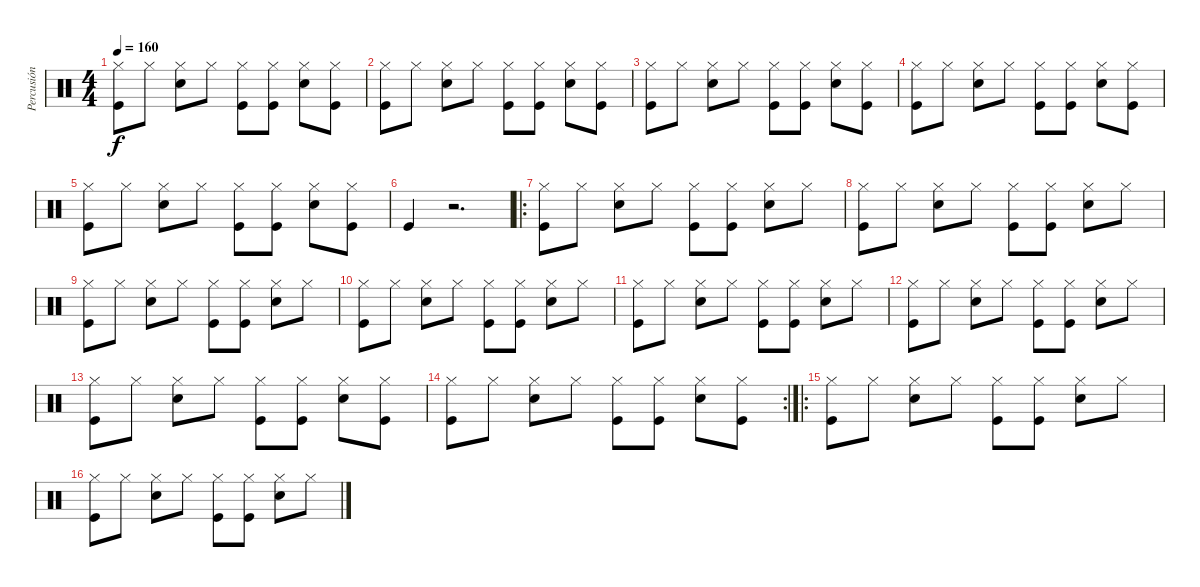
\track ("Percusión" "Percusión") {instrument percussion}
\staff {score}
\articulation defaults
\ts (4 4)
\tempo 160
\clef neutral
\ks c
("Hi-Hat (closed)" "Kick (hit)").8{dy f} "Hi-Hat (closed)".8 ("Hi-Hat (closed)" "Electric Snare (hit)").8 "Hi-Hat (closed)".8 ("Hi-Hat (closed)" "Kick (hit)").8 ("Hi-Hat (closed)" "Kick (hit)").8 ("Hi-Hat (closed)" "Electric Snare (hit)").8 ("Hi-Hat (closed)" "Kick (hit)").8 |
("Hi-Hat (closed)" "Kick (hit)").8 "Hi-Hat (closed)".8 ("Hi-Hat (closed)" "Electric Snare (hit)").8 "Hi-Hat (closed)".8 ("Hi-Hat (closed)" "Kick (hit)").8 ("Hi-Hat (closed)" "Kick (hit)").8 ("Hi-Hat (closed)" "Electric Snare (hit)").8 ("Hi-Hat (closed)" "Kick (hit)").8 |
("Hi-Hat (closed)" "Kick (hit)").8 "Hi-Hat (closed)".8 ("Hi-Hat (closed)" "Electric Snare (hit)").8 "Hi-Hat (closed)".8 ("Hi-Hat (closed)" "Kick (hit)").8 ("Hi-Hat (closed)" "Kick (hit)").8 ("Hi-Hat (closed)" "Electric Snare (hit)").8 ("Hi-Hat (closed)" "Kick (hit)").8 |
("Hi-Hat (closed)" "Kick (hit)").8 "Hi-Hat (closed)".8 ("Hi-Hat (closed)" "Electric Snare (hit)").8 "Hi-Hat (closed)".8 ("Hi-Hat (closed)" "Kick (hit)").8 ("Hi-Hat (closed)" "Kick (hit)").8 ("Hi-Hat (closed)" "Electric Snare (hit)").8 ("Hi-Hat (closed)" "Kick (hit)").8 |
("Hi-Hat (closed)" "Kick (hit)").8 "Hi-Hat (closed)".8 ("Hi-Hat (closed)" "Electric Snare (hit)").8 "Hi-Hat (closed)".8 ("Hi-Hat (closed)" "Kick (hit)").8 ("Hi-Hat (closed)" "Kick (hit)").8 ("Hi-Hat (closed)" "Electric Snare (hit)").8 ("Hi-Hat (closed)" "Kick (hit)").8 |
"Kick (hit)".4 r.2{d} |
\ro
("Hi-Hat (closed)" "Kick (hit)").8 "Hi-Hat (closed)".8 ("Hi-Hat (closed)" "Electric Snare (hit)").8 "Hi-Hat (closed)".8 ("Hi-Hat (closed)" "Kick (hit)").8 ("Hi-Hat (closed)" "Kick (hit)").8 ("Hi-Hat (closed)" "Electric Snare (hit)").8 "Hi-Hat (closed)".8 |
("Hi-Hat (closed)" "Kick (hit)").8 "Hi-Hat (closed)".8 ("Hi-Hat (closed)" "Electric Snare (hit)").8 "Hi-Hat (closed)".8 ("Hi-Hat (closed)" "Kick (hit)").8 ("Hi-Hat (closed)" "Kick (hit)").8 ("Hi-Hat (closed)" "Electric Snare (hit)").8 "Hi-Hat (closed)".8 |
("Hi-Hat (closed)" "Kick (hit)").8 "Hi-Hat (closed)".8 ("Hi-Hat (closed)" "Electric Snare (hit)").8 "Hi-Hat (closed)".8 ("Hi-Hat (closed)" "Kick (hit)").8 ("Hi-Hat (closed)" "Kick (hit)").8 ("Hi-Hat (closed)" "Electric Snare (hit)").8 "Hi-Hat (closed)".8 |
("Hi-Hat (closed)" "Kick (hit)").8 "Hi-Hat (closed)".8 ("Hi-Hat (closed)" "Electric Snare (hit)").8 "Hi-Hat (closed)".8 ("Hi-Hat (closed)" "Kick (hit)").8 ("Hi-Hat (closed)" "Kick (hit)").8 ("Hi-Hat (closed)" "Electric Snare (hit)").8 "Hi-Hat (closed)".8 |
("Hi-Hat (closed)" "Kick (hit)").8 "Hi-Hat (closed)".8 ("Hi-Hat (closed)" "Electric Snare (hit)").8 "Hi-Hat (closed)".8 ("Hi-Hat (closed)" "Kick (hit)").8 ("Hi-Hat (closed)" "Kick (hit)").8 ("Hi-Hat (closed)" "Electric Snare (hit)").8 "Hi-Hat (closed)".8 |
("Hi-Hat (closed)" "Kick (hit)").8 "Hi-Hat (closed)".8 ("Hi-Hat (closed)" "Electric Snare (hit)").8 "Hi-Hat (closed)".8 ("Hi-Hat (closed)" "Kick (hit)").8 ("Hi-Hat (closed)" "Kick (hit)").8 ("Hi-Hat (closed)" "Electric Snare (hit)").8 "Hi-Hat (closed)".8 |
("Hi-Hat (closed)" "Kick (hit)").8 "Hi-Hat (closed)".8 ("Hi-Hat (closed)" "Electric Snare (hit)").8 "Hi-Hat (closed)".8 ("Hi-Hat (closed)" "Kick (hit)").8 ("Hi-Hat (closed)" "Kick (hit)").8 ("Hi-Hat (closed)" "Electric Snare (hit)").8 ("Hi-Hat (closed)" "Kick (hit)").8 |
\rc 2
("Hi-Hat (closed)" "Kick (hit)").8 "Hi-Hat (closed)".8 ("Hi-Hat (closed)" "Electric Snare (hit)").8 "Hi-Hat (closed)".8 ("Hi-Hat (closed)" "Kick (hit)").8 ("Hi-Hat (closed)" "Kick (hit)").8 ("Hi-Hat (closed)" "Electric Snare (hit)").8 ("Hi-Hat (closed)" "Kick (hit)").8 |
\ro
("Hi-Hat (closed)" "Kick (hit)").8 "Hi-Hat (closed)".8 ("Hi-Hat (closed)" "Electric Snare (hit)").8 "Hi-Hat (closed)".8 ("Hi-Hat (closed)" "Kick (hit)").8 ("Hi-Hat (closed)" "Kick (hit)").8 ("Hi-Hat (closed)" "Electric Snare (hit)").8 "Hi-Hat (closed)".8 |
("Hi-Hat (closed)" "Kick (hit)").8 "Hi-Hat (closed)".8 ("Hi-Hat (closed)" "Electric Snare (hit)").8 "Hi-Hat (closed)".8 ("Hi-Hat (closed)" "Kick (hit)").8 ("Hi-Hat (closed)" "Kick (hit)").8 ("Hi-Hat (closed)" "Electric Snare (hit)").8 "Hi-Hat (closed)".8
